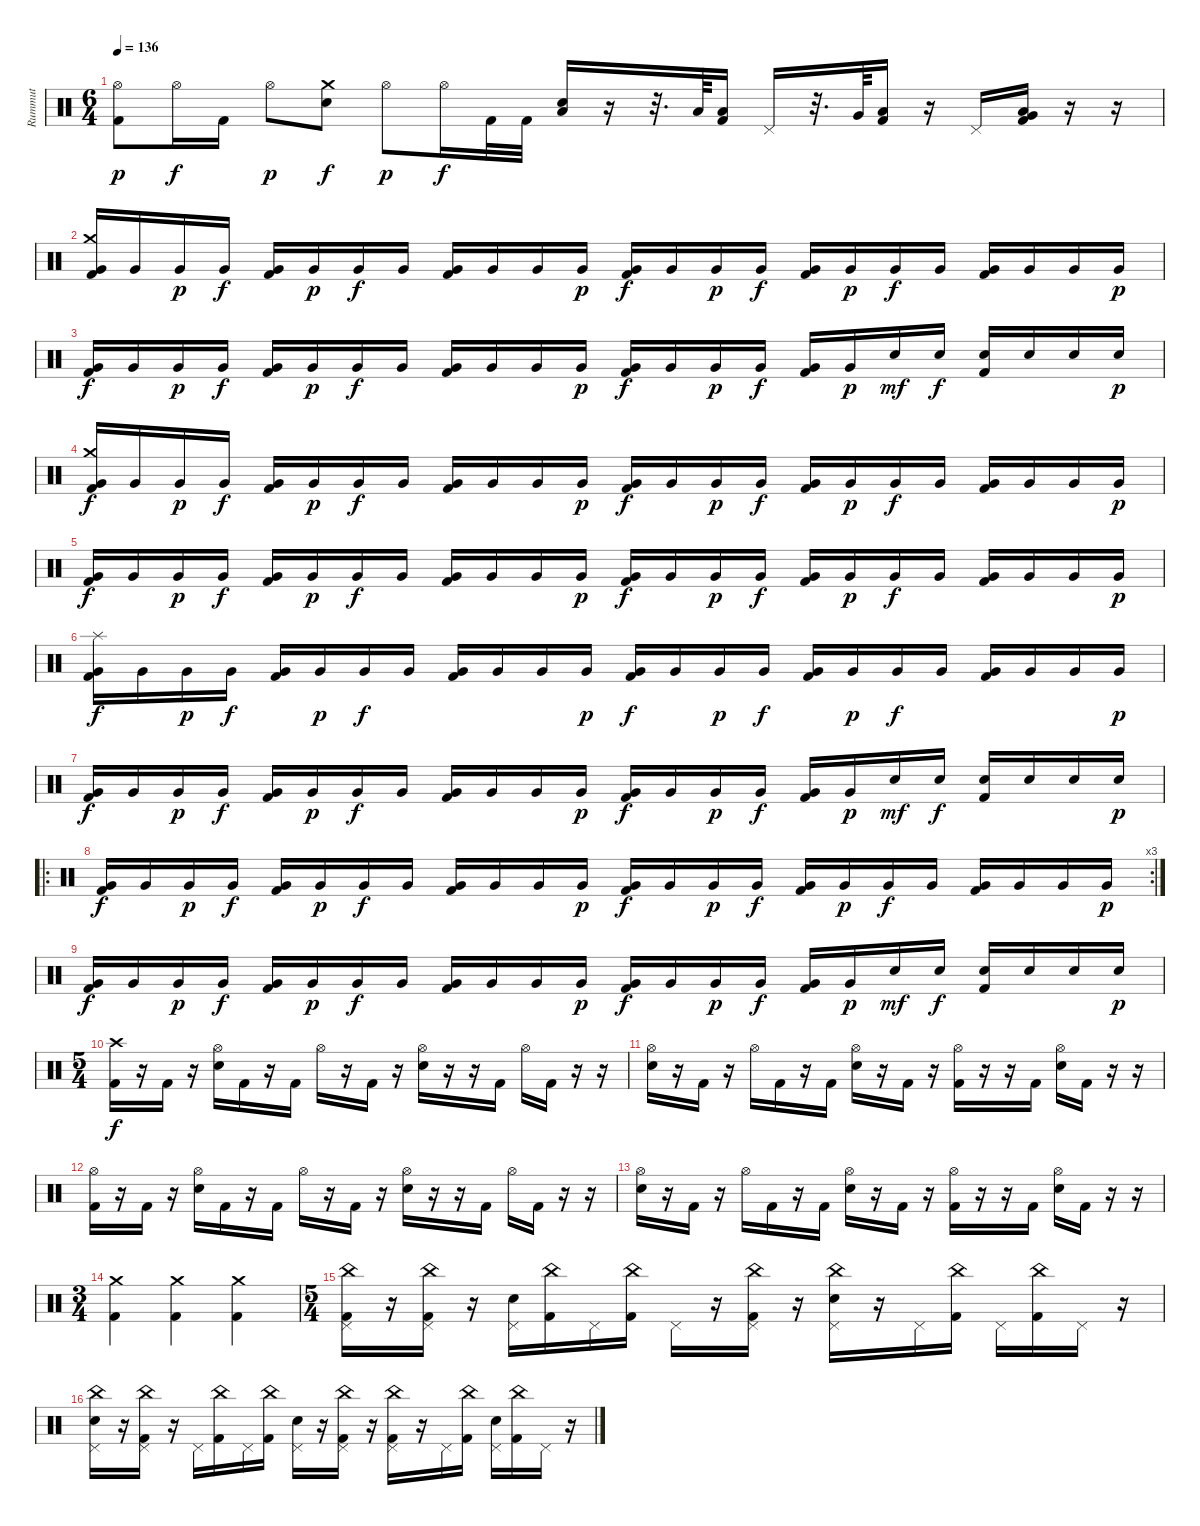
\track ("Rummut" "Rummut") {instrument percussion}
\staff {score}
\articulation defaults
\ts (6 4)
\tempo 136
\clef neutral
\ks c
("Hi-Hat (open)" "Kick (hit) 2").8{dy p} "Hi-Hat (open)".16{dy f} "Kick (hit) 2".16 "Hi-Hat (open)".8{dy p} ("Crash medium (hit)" "Electric Snare (hit)").8{dy f} "Hi-Hat (open)".8{dy p} "Hi-Hat (open)".16{dy f} "Kick (hit) 2".32 "Kick (hit) 2".32 ("Low Floor Tom (hit)" "Electric Snare (hit)").16 r.16 r.32{d} "Low Tom (hit)".64 ("Low Floor Tom (hit)" "Kick (hit) 2").16 "Pedal Hi-Hat (hit)".16 r.32{d} "Very Low Tom (hit)".64 ("Low Floor Tom (hit)" "Kick (hit) 2").16 r.16 "Pedal Hi-Hat (hit)".16 ("Very Low Tom (hit)" "Low Floor Tom (hit)" "Kick (hit) 2").16 r.16 r.16 |
("Crash medium (hit)" "Very Low Tom (hit)" "Kick (hit) 2").16 "Very Low Tom (hit)".16 "Very Low Tom (hit)".16{dy p} "Very Low Tom (hit)".16{dy f} ("Very Low Tom (hit)" "Kick (hit) 2").16 "Very Low Tom (hit)".16{dy p} "Very Low Tom (hit)".16{dy f} "Very Low Tom (hit)".16 ("Very Low Tom (hit)" "Kick (hit) 2").16 "Very Low Tom (hit)".16 "Very Low Tom (hit)".16 "Very Low Tom (hit)".16{dy p} ("Very Low Tom (hit)" "Kick (hit) 2").16{dy f} "Very Low Tom (hit)".16 "Very Low Tom (hit)".16{dy p} "Very Low Tom (hit)".16{dy f} ("Very Low Tom (hit)" "Kick (hit) 2").16 "Very Low Tom (hit)".16{dy p} "Very Low Tom (hit)".16{dy f} "Very Low Tom (hit)".16 ("Very Low Tom (hit)" "Kick (hit) 2").16 "Very Low Tom (hit)".16 "Very Low Tom (hit)".16 "Very Low Tom (hit)".16{dy p} |
("Very Low Tom (hit)" "Kick (hit) 2").16{dy f} "Very Low Tom (hit)".16 "Very Low Tom (hit)".16{dy p} "Very Low Tom (hit)".16{dy f} ("Very Low Tom (hit)" "Kick (hit) 2").16 "Very Low Tom (hit)".16{dy p} "Very Low Tom (hit)".16{dy f} "Very Low Tom (hit)".16 ("Very Low Tom (hit)" "Kick (hit) 2").16 "Very Low Tom (hit)".16 "Very Low Tom (hit)".16 "Very Low Tom (hit)".16{dy p} ("Very Low Tom (hit)" "Kick (hit) 2").16{dy f} "Very Low Tom (hit)".16 "Very Low Tom (hit)".16{dy p} "Very Low Tom (hit)".16{dy f} ("Very Low Tom (hit)" "Kick (hit) 2").16 "Very Low Tom (hit)".16{dy p} "Electric Snare (hit)".16{dy mf} "Electric Snare (hit)".16{dy f} ("Electric Snare (hit)" "Kick (hit) 2").16 "Electric Snare (hit)".16 "Electric Snare (hit)".16 "Electric Snare (hit)".16{dy p} |
("Crash medium (hit)" "Very Low Tom (hit)" "Kick (hit) 2").16{dy f} "Very Low Tom (hit)".16 "Very Low Tom (hit)".16{dy p} "Very Low Tom (hit)".16{dy f} ("Very Low Tom (hit)" "Kick (hit) 2").16 "Very Low Tom (hit)".16{dy p} "Very Low Tom (hit)".16{dy f} "Very Low Tom (hit)".16 ("Very Low Tom (hit)" "Kick (hit) 2").16 "Very Low Tom (hit)".16 "Very Low Tom (hit)".16 "Very Low Tom (hit)".16{dy p} ("Very Low Tom (hit)" "Kick (hit) 2").16{dy f} "Very Low Tom (hit)".16 "Very Low Tom (hit)".16{dy p} "Very Low Tom (hit)".16{dy f} ("Very Low Tom (hit)" "Kick (hit) 2").16 "Very Low Tom (hit)".16{dy p} "Very Low Tom (hit)".16{dy f} "Very Low Tom (hit)".16 ("Very Low Tom (hit)" "Kick (hit) 2").16 "Very Low Tom (hit)".16 "Very Low Tom (hit)".16 "Very Low Tom (hit)".16{dy p} |
("Very Low Tom (hit)" "Kick (hit) 2").16{dy f} "Very Low Tom (hit)".16 "Very Low Tom (hit)".16{dy p} "Very Low Tom (hit)".16{dy f} ("Very Low Tom (hit)" "Kick (hit) 2").16 "Very Low Tom (hit)".16{dy p} "Very Low Tom (hit)".16{dy f} "Very Low Tom (hit)".16 ("Very Low Tom (hit)" "Kick (hit) 2").16 "Very Low Tom (hit)".16 "Very Low Tom (hit)".16 "Very Low Tom (hit)".16{dy p} ("Very Low Tom (hit)" "Kick (hit) 2").16{dy f} "Very Low Tom (hit)".16 "Very Low Tom (hit)".16{dy p} "Very Low Tom (hit)".16{dy f} ("Very Low Tom (hit)" "Kick (hit) 2").16 "Very Low Tom (hit)".16{dy p} "Very Low Tom (hit)".16{dy f} "Very Low Tom (hit)".16 ("Very Low Tom (hit)" "Kick (hit) 2").16 "Very Low Tom (hit)".16 "Very Low Tom (hit)".16 "Very Low Tom (hit)".16{dy p} |
("Splash (hit)" "Very Low Tom (hit)" "Kick (hit) 2").16{dy f} "Very Low Tom (hit)".16 "Very Low Tom (hit)".16{dy p} "Very Low Tom (hit)".16{dy f} ("Very Low Tom (hit)" "Kick (hit) 2").16 "Very Low Tom (hit)".16{dy p} "Very Low Tom (hit)".16{dy f} "Very Low Tom (hit)".16 ("Very Low Tom (hit)" "Kick (hit) 2").16 "Very Low Tom (hit)".16 "Very Low Tom (hit)".16 "Very Low Tom (hit)".16{dy p} ("Very Low Tom (hit)" "Kick (hit) 2").16{dy f} "Very Low Tom (hit)".16 "Very Low Tom (hit)".16{dy p} "Very Low Tom (hit)".16{dy f} ("Very Low Tom (hit)" "Kick (hit) 2").16 "Very Low Tom (hit)".16{dy p} "Very Low Tom (hit)".16{dy f} "Very Low Tom (hit)".16 ("Very Low Tom (hit)" "Kick (hit) 2").16 "Very Low Tom (hit)".16 "Very Low Tom (hit)".16 "Very Low Tom (hit)".16{dy p} |
("Very Low Tom (hit)" "Kick (hit) 2").16{dy f} "Very Low Tom (hit)".16 "Very Low Tom (hit)".16{dy p} "Very Low Tom (hit)".16{dy f} ("Very Low Tom (hit)" "Kick (hit) 2").16 "Very Low Tom (hit)".16{dy p} "Very Low Tom (hit)".16{dy f} "Very Low Tom (hit)".16 ("Very Low Tom (hit)" "Kick (hit) 2").16 "Very Low Tom (hit)".16 "Very Low Tom (hit)".16 "Very Low Tom (hit)".16{dy p} ("Very Low Tom (hit)" "Kick (hit) 2").16{dy f} "Very Low Tom (hit)".16 "Very Low Tom (hit)".16{dy p} "Very Low Tom (hit)".16{dy f} ("Very Low Tom (hit)" "Kick (hit) 2").16 "Very Low Tom (hit)".16{dy p} "Electric Snare (hit)".16{dy mf} "Electric Snare (hit)".16{dy f} ("Electric Snare (hit)" "Kick (hit) 2").16 "Electric Snare (hit)".16 "Electric Snare (hit)".16 "Electric Snare (hit)".16{dy p} |
\ro
\rc 3
("Very Low Tom (hit)" "Kick (hit) 2").16{dy f} "Very Low Tom (hit)".16 "Very Low Tom (hit)".16{dy p} "Very Low Tom (hit)".16{dy f} ("Very Low Tom (hit)" "Kick (hit) 2").16 "Very Low Tom (hit)".16{dy p} "Very Low Tom (hit)".16{dy f} "Very Low Tom (hit)".16 ("Very Low Tom (hit)" "Kick (hit) 2").16 "Very Low Tom (hit)".16 "Very Low Tom (hit)".16 "Very Low Tom (hit)".16{dy p} ("Very Low Tom (hit)" "Kick (hit) 2").16{dy f} "Very Low Tom (hit)".16 "Very Low Tom (hit)".16{dy p} "Very Low Tom (hit)".16{dy f} ("Very Low Tom (hit)" "Kick (hit) 2").16 "Very Low Tom (hit)".16{dy p} "Very Low Tom (hit)".16{dy f} "Very Low Tom (hit)".16 ("Very Low Tom (hit)" "Kick (hit) 2").16 "Very Low Tom (hit)".16 "Very Low Tom (hit)".16 "Very Low Tom (hit)".16{dy p} |
("Very Low Tom (hit)" "Kick (hit) 2").16{dy f} "Very Low Tom (hit)".16 "Very Low Tom (hit)".16{dy p} "Very Low Tom (hit)".16{dy f} ("Very Low Tom (hit)" "Kick (hit) 2").16 "Very Low Tom (hit)".16{dy p} "Very Low Tom (hit)".16{dy f} "Very Low Tom (hit)".16 ("Very Low Tom (hit)" "Kick (hit) 2").16 "Very Low Tom (hit)".16 "Very Low Tom (hit)".16 "Very Low Tom (hit)".16{dy p} ("Very Low Tom (hit)" "Kick (hit) 2").16{dy f} "Very Low Tom (hit)".16 "Very Low Tom (hit)".16{dy p} "Very Low Tom (hit)".16{dy f} ("Very Low Tom (hit)" "Kick (hit) 2").16 "Very Low Tom (hit)".16{dy p} "Electric Snare (hit)".16{dy mf} "Electric Snare (hit)".16{dy f} ("Electric Snare (hit)" "Kick (hit) 2").16 "Electric Snare (hit)".16 "Electric Snare (hit)".16 "Electric Snare (hit)".16{dy p} |
\ts (5 4)
("Crash high (hit)" "Kick (hit) 2").16{dy f} r.16 "Kick (hit) 2".16 r.16 ("Hi-Hat (open)" "Electric Snare (hit)").16 "Kick (hit) 2".16 r.16 "Kick (hit) 2".16 "Hi-Hat (open)".16 r.16 "Kick (hit) 2".16 r.16 ("Hi-Hat (open)" "Electric Snare (hit)").16 r.16 r.16 "Kick (hit) 2".16 "Hi-Hat (open)".16 "Kick (hit) 2".16 r.16 r.16 |
("Hi-Hat (open)" "Electric Snare (hit)").16 r.16 "Kick (hit) 2".16 r.16 "Hi-Hat (open)".16 "Kick (hit) 2".16 r.16 "Kick (hit) 2".16 ("Hi-Hat (open)" "Electric Snare (hit)").16 r.16 "Kick (hit) 2".16 r.16 ("Hi-Hat (open)" "Kick (hit) 2").16 r.16 r.16 "Kick (hit) 2".16 ("Hi-Hat (open)" "Electric Snare (hit)").16 "Kick (hit) 2".16 r.16 r.16 |
("Hi-Hat (open)" "Kick (hit) 2").16 r.16 "Kick (hit) 2".16 r.16 ("Hi-Hat (open)" "Electric Snare (hit)").16 "Kick (hit) 2".16 r.16 "Kick (hit) 2".16 "Hi-Hat (open)".16 r.16 "Kick (hit) 2".16 r.16 ("Hi-Hat (open)" "Electric Snare (hit)").16 r.16 r.16 "Kick (hit) 2".16 "Hi-Hat (open)".16 "Kick (hit) 2".16 r.16 r.16 |
("Hi-Hat (open)" "Electric Snare (hit)").16 r.16 "Kick (hit) 2".16 r.16 "Hi-Hat (open)".16 "Kick (hit) 2".16 r.16 "Kick (hit) 2".16 ("Hi-Hat (open)" "Electric Snare (hit)").16 r.16 "Kick (hit) 2".16 r.16 ("Hi-Hat (open)" "Kick (hit) 2").16 r.16 r.16 "Kick (hit) 2".16 ("Hi-Hat (open)" "Electric Snare (hit)").16 "Kick (hit) 2".16 r.16 r.16 |
\ts (3 4)
("Crash medium (hit)" "Kick (hit) 2").4 ("Crash medium (hit)" "Kick (hit) 2").4 ("Crash medium (hit)" "Kick (hit) 2").4 |
\ts (5 4)
("China (hit)" "Pedal Hi-Hat (hit)" "Kick (hit) 2").16 r.16 ("China (hit)" "Pedal Hi-Hat (hit)" "Kick (hit) 2").16 r.16 ("Pedal Hi-Hat (hit)" "Electric Snare (hit)").16 ("China (hit)" "Kick (hit) 2").16 "Pedal Hi-Hat (hit)".16 ("China (hit)" "Kick (hit) 2").16 "Pedal Hi-Hat (hit)".16 r.16 ("China (hit)" "Pedal Hi-Hat (hit)" "Kick (hit) 2").16 r.16 ("China (hit)" "Pedal Hi-Hat (hit)" "Electric Snare (hit)").16 r.16 "Pedal Hi-Hat (hit)".16 ("China (hit)" "Kick (hit) 2").16 "Pedal Hi-Hat (hit)".16 ("China (hit)" "Kick (hit) 2").16 "Pedal Hi-Hat (hit)".16 r.16 |
("China (hit)" "Pedal Hi-Hat (hit)" "Electric Snare (hit)").16 r.16 ("China (hit)" "Pedal Hi-Hat (hit)" "Kick (hit) 2").16 r.16 "Pedal Hi-Hat (hit)".16 ("China (hit)" "Kick (hit) 2").16 "Pedal Hi-Hat (hit)".16 ("China (hit)" "Kick (hit) 2").16 ("Pedal Hi-Hat (hit)" "Electric Snare (hit)").16 r.16 ("China (hit)" "Pedal Hi-Hat (hit)" "Kick (hit) 2").16 r.16 ("China (hit)" "Pedal Hi-Hat (hit)" "Kick (hit) 2").16 r.16 "Pedal Hi-Hat (hit)".16 ("China (hit)" "Kick (hit) 2").16 ("Pedal Hi-Hat (hit)" "Electric Snare (hit)").16 ("China (hit)" "Kick (hit) 2").16 "Pedal Hi-Hat (hit)".16 r.16
